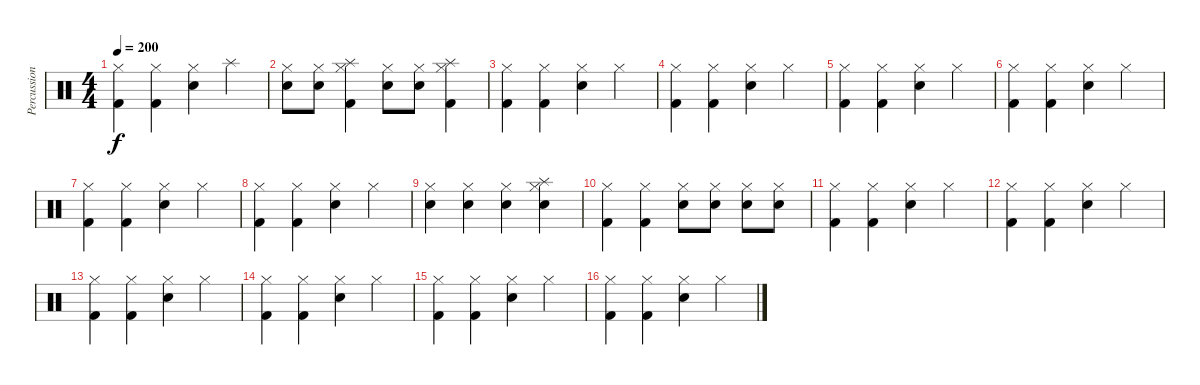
\track ("Percussion" "Percussion") {instrument percussion}
\staff {score}
\articulation defaults
\ts (4 4)
\tempo 200
\clef neutral
\ks c
("Kick (hit) 2" "Hi-Hat (closed)").4{dy f} ("Kick (hit) 2" "Hi-Hat (closed)").4 ("Snare (hit) 2" "Hi-Hat (closed)").4 "Splash (hit)".4 |
("Snare (hit) 2" "Hi-Hat (closed)").8 ("Snare (hit) 2" "Hi-Hat (closed)").8 ("Kick (hit) 2" "Hi-Hat (closed)" "Splash (hit)").4 ("Snare (hit) 2" "Hi-Hat (closed)").8 ("Snare (hit) 2" "Hi-Hat (closed)").8 ("Kick (hit) 2" "Hi-Hat (closed)" "Splash (hit)").4 |
("Kick (hit) 2" "Hi-Hat (closed)").4 ("Kick (hit) 2" "Hi-Hat (closed)").4 ("Snare (hit) 2" "Hi-Hat (closed)").4 "Hi-Hat (closed)".4 |
("Kick (hit) 2" "Hi-Hat (closed)").4 ("Kick (hit) 2" "Hi-Hat (closed)").4 ("Snare (hit) 2" "Hi-Hat (closed)").4 "Hi-Hat (closed)".4 |
("Kick (hit) 2" "Hi-Hat (closed)").4 ("Kick (hit) 2" "Hi-Hat (closed)").4 ("Snare (hit) 2" "Hi-Hat (closed)").4 "Hi-Hat (closed)".4 |
("Kick (hit) 2" "Hi-Hat (closed)").4 ("Kick (hit) 2" "Hi-Hat (closed)").4 ("Snare (hit) 2" "Hi-Hat (closed)").4 "Hi-Hat (closed)".4 |
("Kick (hit) 2" "Hi-Hat (closed)").4 ("Kick (hit) 2" "Hi-Hat (closed)").4 ("Snare (hit) 2" "Hi-Hat (closed)").4 "Hi-Hat (closed)".4 |
("Kick (hit) 2" "Hi-Hat (closed)").4 ("Kick (hit) 2" "Hi-Hat (closed)").4 ("Snare (hit) 2" "Hi-Hat (closed)").4 "Hi-Hat (closed)".4 |
("Snare (hit) 2" "Hi-Hat (closed)").4 ("Snare (hit) 2" "Hi-Hat (closed)").4 ("Snare (hit) 2" "Hi-Hat (closed)").4 ("Snare (hit) 2" "Hi-Hat (closed)" "Splash (hit)").4 |
("Kick (hit) 2" "Hi-Hat (closed)").4 ("Kick (hit) 2" "Hi-Hat (closed)").4 ("Snare (hit) 2" "Hi-Hat (closed)").8 ("Snare (hit) 2" "Hi-Hat (closed)").8 ("Snare (hit) 2" "Hi-Hat (closed)").8 ("Snare (hit) 2" "Hi-Hat (closed)").8 |
("Kick (hit) 2" "Hi-Hat (closed)").4 ("Kick (hit) 2" "Hi-Hat (closed)").4 ("Snare (hit) 2" "Hi-Hat (closed)").4 "Hi-Hat (closed)".4 |
("Kick (hit) 2" "Hi-Hat (closed)").4 ("Kick (hit) 2" "Hi-Hat (closed)").4 ("Snare (hit) 2" "Hi-Hat (closed)").4 "Hi-Hat (closed)".4 |
("Kick (hit) 2" "Hi-Hat (closed)").4 ("Kick (hit) 2" "Hi-Hat (closed)").4 ("Snare (hit) 2" "Hi-Hat (closed)").4 "Hi-Hat (closed)".4 |
("Kick (hit) 2" "Hi-Hat (closed)").4 ("Kick (hit) 2" "Hi-Hat (closed)").4 ("Snare (hit) 2" "Hi-Hat (closed)").4 "Hi-Hat (closed)".4 |
("Kick (hit) 2" "Hi-Hat (closed)").4 ("Kick (hit) 2" "Hi-Hat (closed)").4 ("Snare (hit) 2" "Hi-Hat (closed)").4 "Hi-Hat (closed)".4 |
("Kick (hit) 2" "Hi-Hat (closed)").4 ("Kick (hit) 2" "Hi-Hat (closed)").4 ("Snare (hit) 2" "Hi-Hat (closed)").4 "Hi-Hat (closed)".4
